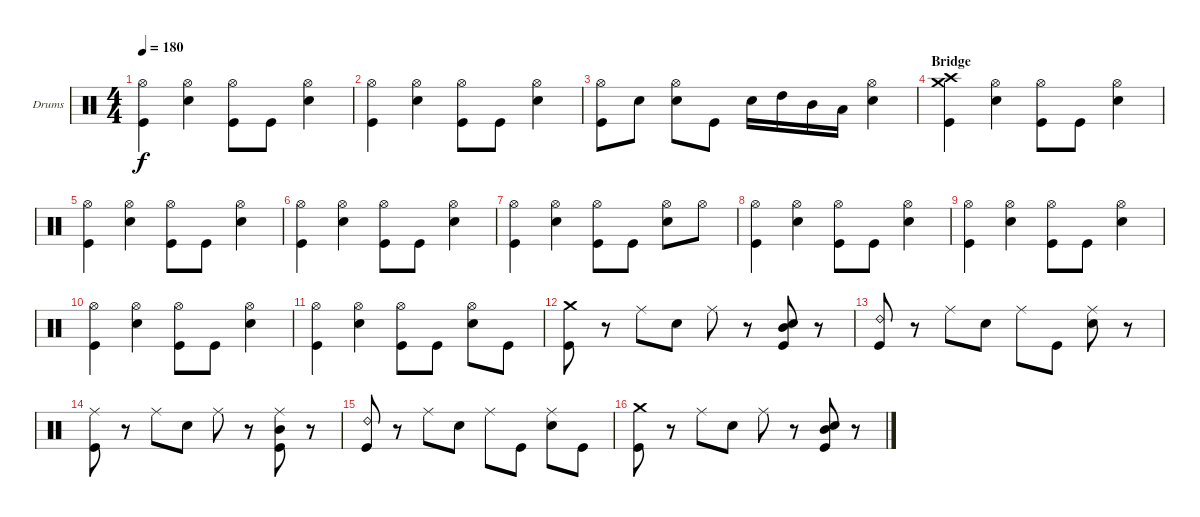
\defaultSystemsLayout 4
\bracketExtendMode groupsimilarinstruments
\firstSystemTrackNameOrientation horizontal
\otherSystemsTrackNameOrientation horizontal
\track ("Drumkit" "Drums") {instrument percussion}
\staff {score}
\articulation defaults
\ts (4 4)
\tempo 180
\clef neutral
\ks c
("Kick (hit)" "Hi-Hat (open)").4{dy f} ("Snare (hit) 2" "Hi-Hat (open)").4 ("Hi-Hat (open)" "Kick (hit)").8 "Kick (hit)".8 ("Hi-Hat (open)" "Snare (hit) 2").4 |
("Kick (hit)" "Hi-Hat (open)").4 ("Snare (hit) 2" "Hi-Hat (open)").4 ("Hi-Hat (open)" "Kick (hit)").8 "Kick (hit)".8 ("Snare (hit) 2" "Hi-Hat (open)").4 |
("Kick (hit)" "Hi-Hat (open)").8 "Snare (hit) 2".8 ("Snare (hit) 2" "Hi-Hat (open)").8 "Kick (hit)".8 "Snare (hit) 2".16 "High Tom (hit)".16 "Mid Tom (hit)".16 "Low Tom (hit)".16 ("Snare (hit) 2" "Hi-Hat (open)").4 |
\section ("" "Bridge")
("Crash medium (hit)" "Kick (hit)" "Crash high (hit)").4 ("Snare (hit) 2" "Hi-Hat (open)").4 ("Hi-Hat (open)" "Kick (hit)").8 "Kick (hit)".8 ("Hi-Hat (open)" "Snare (hit) 2").4 |
("Kick (hit)" "Hi-Hat (open)").4 ("Snare (hit) 2" "Hi-Hat (open)").4 ("Hi-Hat (open)" "Kick (hit)").8 "Kick (hit)".8 ("Hi-Hat (open)" "Snare (hit) 2").4 |
("Kick (hit)" "Hi-Hat (open)").4 ("Snare (hit) 2" "Hi-Hat (open)").4 ("Hi-Hat (open)" "Kick (hit)").8 "Kick (hit)".8 ("Hi-Hat (open)" "Snare (hit) 2").4 |
("Kick (hit)" "Hi-Hat (open)").4 ("Snare (hit) 2" "Hi-Hat (open)").4 ("Hi-Hat (open)" "Kick (hit)").8 "Kick (hit)".8 ("Hi-Hat (open)" "Snare (hit) 2").8 "Hi-Hat (open)".8 |
("Kick (hit)" "Hi-Hat (open)").4 ("Snare (hit) 2" "Hi-Hat (open)").4 ("Hi-Hat (open)" "Kick (hit)").8 "Kick (hit)".8 ("Hi-Hat (open)" "Snare (hit) 2").4 |
("Kick (hit)" "Hi-Hat (open)").4 ("Snare (hit) 2" "Hi-Hat (open)").4 ("Hi-Hat (open)" "Kick (hit)").8 "Kick (hit)".8 ("Hi-Hat (open)" "Snare (hit) 2").4 |
("Kick (hit)" "Hi-Hat (open)").4 ("Snare (hit) 2" "Hi-Hat (open)").4 ("Hi-Hat (open)" "Kick (hit)").8 "Kick (hit)".8 ("Snare (hit) 2" "Hi-Hat (open)").4 |
("Kick (hit)" "Hi-Hat (open)").4 ("Snare (hit) 2" "Hi-Hat (open)").4 ("Hi-Hat (open)" "Kick (hit)").8 "Kick (hit)".8 ("Snare (hit) 2" "Hi-Hat (open)").8 "Kick (hit)".8 |
("Kick (hit)" "Crash medium (hit)").8 r.8 "Ride (middle)".8 "Snare (hit) 2".8 "Ride (middle)".8 r.8 ("Mid Tom (hit)" "Snare (hit) 2" "Kick (hit)").8 r.8 |
("Kick (hit)" "Ride (bell) 2").8 r.8 "Ride (middle)".8 "Snare (hit) 2".8 "Ride (middle)".8 "Kick (hit)".8 ("Snare (hit) 2" "Ride (middle)").8 r.8 |
("Kick (hit)" "Ride (middle)").8 r.8 "Ride (middle)".8 "Snare (hit) 2".8 "Ride (middle)".8 r.8 ("Mid Tom (hit)" "Ride (middle)" "Kick (hit)").8 r.8 |
("Kick (hit)" "Ride (bell) 2").8 r.8 "Ride (middle)".8 "Snare (hit) 2".8 "Ride (middle)".8 "Kick (hit)".8 ("Snare (hit) 2" "Ride (middle)").8 "Kick (hit)".8 |
("Kick (hit)" "Crash medium (hit)").8 r.8 "Ride (middle)".8 "Snare (hit) 2".8 "Ride (middle)".8 r.8 ("Mid Tom (hit)" "Snare (hit) 2" "Kick (hit)").8 r.8
